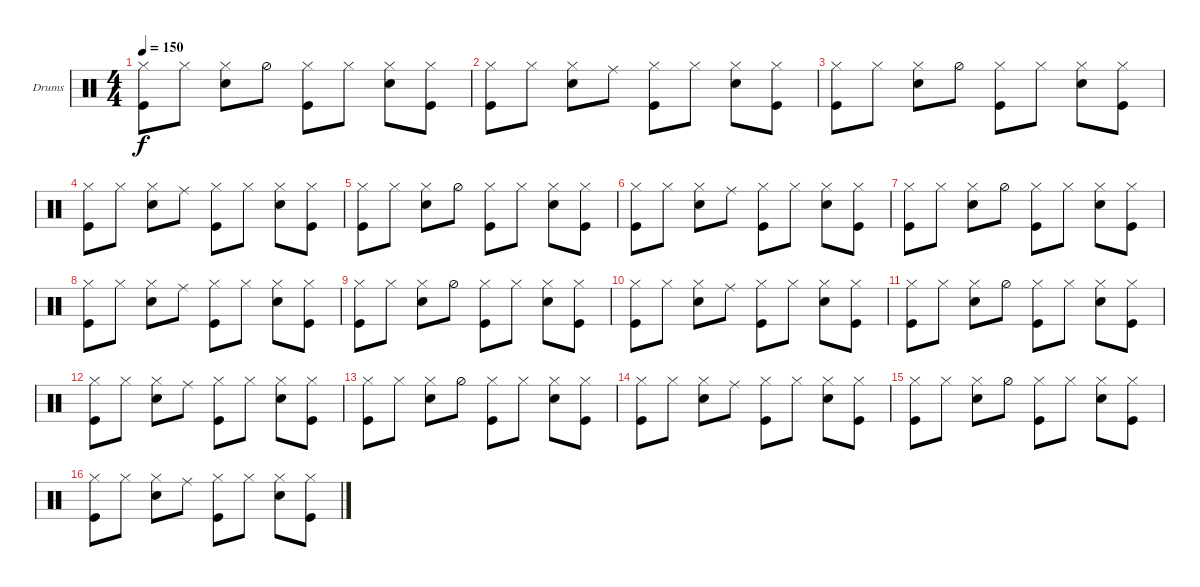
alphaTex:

\bracketExtendMode groupsimilarinstruments
\firstSystemTrackNameOrientation horizontal
\otherSystemsTrackNameOrientation horizontal
\track ("Drumkit" "Drums") {instrument percussion}
\staff {score}
\articulation defaults
\ts (4 4)
\tempo 150
\clef neutral
\ks c
("Hi-Hat (closed)" "Kick (hit)").8{dy f} "Hi-Hat (closed)".8 ("Hi-Hat (closed)" "Snare (hit) 2").8 "Hi-Hat (half)".8 ("Hi-Hat (closed)" "Kick (hit)").8 "Hi-Hat (closed)".8 ("Hi-Hat (closed)" "Snare (hit) 2").8 ("Hi-Hat (closed)" "Kick (hit)").8 |
("Hi-Hat (closed)" "Kick (hit)").8 "Hi-Hat (closed)".8 ("Hi-Hat (closed)" "Snare (hit) 2").8 "Ride (middle)".8 ("Hi-Hat (closed)" "Kick (hit)").8 "Hi-Hat (closed)".8 ("Hi-Hat (closed)" "Snare (hit) 2").8 ("Hi-Hat (closed)" "Kick (hit)").8 |
("Hi-Hat (closed)" "Kick (hit)").8 "Hi-Hat (closed)".8 ("Hi-Hat (closed)" "Snare (hit) 2").8 "Hi-Hat (half)".8 ("Hi-Hat (closed)" "Kick (hit)").8 "Hi-Hat (closed)".8 ("Hi-Hat (closed)" "Snare (hit) 2").8 ("Hi-Hat (closed)" "Kick (hit)").8 |
("Hi-Hat (closed)" "Kick (hit)").8 "Hi-Hat (closed)".8 ("Hi-Hat (closed)" "Snare (hit) 2").8 "Ride (middle)".8 ("Hi-Hat (closed)" "Kick (hit)").8 "Hi-Hat (closed)".8 ("Hi-Hat (closed)" "Snare (hit) 2").8 ("Hi-Hat (closed)" "Kick (hit)").8 |
("Hi-Hat (closed)" "Kick (hit)").8 "Hi-Hat (closed)".8 ("Hi-Hat (closed)" "Snare (hit) 2").8 "Hi-Hat (half)".8 ("Hi-Hat (closed)" "Kick (hit)").8 "Hi-Hat (closed)".8 ("Hi-Hat (closed)" "Snare (hit) 2").8 ("Hi-Hat (closed)" "Kick (hit)").8 |
("Hi-Hat (closed)" "Kick (hit)").8 "Hi-Hat (closed)".8 ("Hi-Hat (closed)" "Snare (hit) 2").8 "Ride (middle)".8 ("Hi-Hat (closed)" "Kick (hit)").8 "Hi-Hat (closed)".8 ("Hi-Hat (closed)" "Snare (hit) 2").8 ("Hi-Hat (closed)" "Kick (hit)").8 |
("Hi-Hat (closed)" "Kick (hit)").8 "Hi-Hat (closed)".8 ("Hi-Hat (closed)" "Snare (hit) 2").8 "Hi-Hat (half)".8 ("Hi-Hat (closed)" "Kick (hit)").8 "Hi-Hat (closed)".8 ("Hi-Hat (closed)" "Snare (hit) 2").8 ("Hi-Hat (closed)" "Kick (hit)").8 |
("Hi-Hat (closed)" "Kick (hit)").8 "Hi-Hat (closed)".8 ("Hi-Hat (closed)" "Snare (hit) 2").8 "Ride (middle)".8 ("Hi-Hat (closed)" "Kick (hit)").8 "Hi-Hat (closed)".8 ("Hi-Hat (closed)" "Snare (hit) 2").8 ("Hi-Hat (closed)" "Kick (hit)").8 |
("Hi-Hat (closed)" "Kick (hit)").8 "Hi-Hat (closed)".8 ("Hi-Hat (closed)" "Snare (hit) 2").8 "Hi-Hat (half)".8 ("Hi-Hat (closed)" "Kick (hit)").8 "Hi-Hat (closed)".8 ("Hi-Hat (closed)" "Snare (hit) 2").8 ("Hi-Hat (closed)" "Kick (hit)").8 |
("Hi-Hat (closed)" "Kick (hit)").8 "Hi-Hat (closed)".8 ("Hi-Hat (closed)" "Snare (hit) 2").8 "Ride (middle)".8 ("Hi-Hat (closed)" "Kick (hit)").8 "Hi-Hat (closed)".8 ("Hi-Hat (closed)" "Snare (hit) 2").8 ("Hi-Hat (closed)" "Kick (hit)").8 |
("Hi-Hat (closed)" "Kick (hit)").8 "Hi-Hat (closed)".8 ("Hi-Hat (closed)" "Snare (hit) 2").8 "Hi-Hat (half)".8 ("Hi-Hat (closed)" "Kick (hit)").8 "Hi-Hat (closed)".8 ("Hi-Hat (closed)" "Snare (hit) 2").8 ("Hi-Hat (closed)" "Kick (hit)").8 |
("Hi-Hat (closed)" "Kick (hit)").8 "Hi-Hat (closed)".8 ("Hi-Hat (closed)" "Snare (hit) 2").8 "Ride (middle)".8 ("Hi-Hat (closed)" "Kick (hit)").8 "Hi-Hat (closed)".8 ("Hi-Hat (closed)" "Snare (hit) 2").8 ("Hi-Hat (closed)" "Kick (hit)").8 |
("Hi-Hat (closed)" "Kick (hit)").8 "Hi-Hat (closed)".8 ("Hi-Hat (closed)" "Snare (hit) 2").8 "Hi-Hat (half)".8 ("Hi-Hat (closed)" "Kick (hit)").8 "Hi-Hat (closed)".8 ("Hi-Hat (closed)" "Snare (hit) 2").8 ("Hi-Hat (closed)" "Kick (hit)").8 |
("Hi-Hat (closed)" "Kick (hit)").8 "Hi-Hat (closed)".8 ("Hi-Hat (closed)" "Snare (hit) 2").8 "Ride (middle)".8 ("Hi-Hat (closed)" "Kick (hit)").8 "Hi-Hat (closed)".8 ("Hi-Hat (closed)" "Snare (hit) 2").8 ("Hi-Hat (closed)" "Kick (hit)").8 |
("Hi-Hat (closed)" "Kick (hit)").8 "Hi-Hat (closed)".8 ("Hi-Hat (closed)" "Snare (hit) 2").8 "Hi-Hat (half)".8 ("Hi-Hat (closed)" "Kick (hit)").8 "Hi-Hat (closed)".8 ("Hi-Hat (closed)" "Snare (hit) 2").8 ("Hi-Hat (closed)" "Kick (hit)").8 |
("Hi-Hat (closed)" "Kick (hit)").8 "Hi-Hat (closed)".8 ("Hi-Hat (closed)" "Snare (hit) 2").8 "Ride (middle)".8 ("Hi-Hat (closed)" "Kick (hit)").8 "Hi-Hat (closed)".8 ("Hi-Hat (closed)" "Snare (hit) 2").8 ("Hi-Hat (closed)" "Kick (hit)").8
